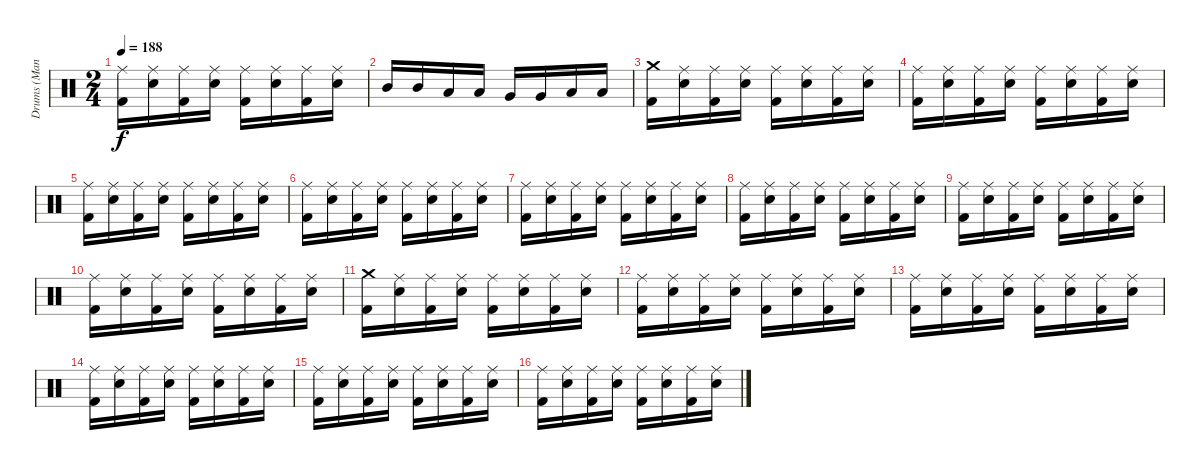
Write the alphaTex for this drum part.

\track ("Drums (Manheim)" "Drums (Man") {instrument percussion}
\staff {score}
\articulation defaults
\ts (2 4)
\tempo 188
\clef neutral
\ks c
("Ride (middle)" "Kick (hit) 2").16{dy f} ("Ride (middle)" "Electric Snare (hit)").16 ("Ride (middle)" "Kick (hit) 2").16 ("Ride (middle)" "Electric Snare (hit)").16 ("Ride (middle)" "Kick (hit) 2").16 ("Ride (middle)" "Electric Snare (hit)").16 ("Ride (middle)" "Kick (hit) 2").16 ("Ride (middle)" "Electric Snare (hit)").16 |
"Mid Tom (hit)".16 "Mid Tom (hit)".16 "Low Tom (hit)".16 "Low Tom (hit)".16 "Very Low Tom (hit)".16 "Very Low Tom (hit)".16 "Low Floor Tom (hit)".16 "Low Floor Tom (hit)".16 |
("Crash medium (hit)" "Kick (hit) 2").16 ("Ride (middle)" "Electric Snare (hit)").16 ("Ride (middle)" "Kick (hit) 2").16 ("Ride (middle)" "Electric Snare (hit)").16 ("Ride (middle)" "Kick (hit) 2").16 ("Ride (middle)" "Electric Snare (hit)").16 ("Ride (middle)" "Kick (hit) 2").16 ("Ride (middle)" "Electric Snare (hit)").16 |
("Ride (middle)" "Kick (hit) 2").16 ("Ride (middle)" "Electric Snare (hit)").16 ("Ride (middle)" "Kick (hit) 2").16 ("Ride (middle)" "Electric Snare (hit)").16 ("Ride (middle)" "Kick (hit) 2").16 ("Ride (middle)" "Electric Snare (hit)").16 ("Ride (middle)" "Kick (hit) 2").16 ("Ride (middle)" "Electric Snare (hit)").16 |
("Ride (middle)" "Kick (hit) 2").16 ("Ride (middle)" "Electric Snare (hit)").16 ("Ride (middle)" "Kick (hit) 2").16 ("Ride (middle)" "Electric Snare (hit)").16 ("Ride (middle)" "Kick (hit) 2").16 ("Ride (middle)" "Electric Snare (hit)").16 ("Ride (middle)" "Kick (hit) 2").16 ("Ride (middle)" "Electric Snare (hit)").16 |
("Ride (middle)" "Kick (hit) 2").16 ("Ride (middle)" "Electric Snare (hit)").16 ("Ride (middle)" "Kick (hit) 2").16 ("Ride (middle)" "Electric Snare (hit)").16 ("Ride (middle)" "Kick (hit) 2").16 ("Ride (middle)" "Electric Snare (hit)").16 ("Ride (middle)" "Kick (hit) 2").16 ("Ride (middle)" "Electric Snare (hit)").16 |
("Ride (middle)" "Kick (hit) 2").16 ("Ride (middle)" "Electric Snare (hit)").16 ("Ride (middle)" "Kick (hit) 2").16 ("Ride (middle)" "Electric Snare (hit)").16 ("Ride (middle)" "Kick (hit) 2").16 ("Ride (middle)" "Electric Snare (hit)").16 ("Ride (middle)" "Kick (hit) 2").16 ("Ride (middle)" "Electric Snare (hit)").16 |
("Ride (middle)" "Kick (hit) 2").16 ("Ride (middle)" "Electric Snare (hit)").16 ("Ride (middle)" "Kick (hit) 2").16 ("Ride (middle)" "Electric Snare (hit)").16 ("Ride (middle)" "Kick (hit) 2").16 ("Ride (middle)" "Electric Snare (hit)").16 ("Ride (middle)" "Kick (hit) 2").16 ("Ride (middle)" "Electric Snare (hit)").16 |
("Ride (middle)" "Kick (hit) 2").16 ("Ride (middle)" "Electric Snare (hit)").16 ("Ride (middle)" "Kick (hit) 2").16 ("Ride (middle)" "Electric Snare (hit)").16 ("Ride (middle)" "Kick (hit) 2").16 ("Ride (middle)" "Electric Snare (hit)").16 ("Ride (middle)" "Kick (hit) 2").16 ("Ride (middle)" "Electric Snare (hit)").16 |
("Ride (middle)" "Kick (hit) 2").16 ("Ride (middle)" "Electric Snare (hit)").16 ("Ride (middle)" "Kick (hit) 2").16 ("Ride (middle)" "Electric Snare (hit)").16 ("Ride (middle)" "Kick (hit) 2").16 ("Ride (middle)" "Electric Snare (hit)").16 ("Ride (middle)" "Kick (hit) 2").16 ("Ride (middle)" "Electric Snare (hit)").16 |
("Crash medium (hit)" "Kick (hit) 2").16 ("Ride (middle)" "Electric Snare (hit)").16 ("Ride (middle)" "Kick (hit) 2").16 ("Ride (middle)" "Electric Snare (hit)").16 ("Ride (middle)" "Kick (hit) 2").16 ("Ride (middle)" "Electric Snare (hit)").16 ("Ride (middle)" "Kick (hit) 2").16 ("Ride (middle)" "Electric Snare (hit)").16 |
("Ride (middle)" "Kick (hit) 2").16 ("Ride (middle)" "Electric Snare (hit)").16 ("Ride (middle)" "Kick (hit) 2").16 ("Ride (middle)" "Electric Snare (hit)").16 ("Ride (middle)" "Kick (hit) 2").16 ("Ride (middle)" "Electric Snare (hit)").16 ("Ride (middle)" "Kick (hit) 2").16 ("Ride (middle)" "Electric Snare (hit)").16 |
("Ride (middle)" "Kick (hit) 2").16 ("Ride (middle)" "Electric Snare (hit)").16 ("Ride (middle)" "Kick (hit) 2").16 ("Ride (middle)" "Electric Snare (hit)").16 ("Ride (middle)" "Kick (hit) 2").16 ("Ride (middle)" "Electric Snare (hit)").16 ("Ride (middle)" "Kick (hit) 2").16 ("Ride (middle)" "Electric Snare (hit)").16 |
("Ride (middle)" "Kick (hit) 2").16 ("Ride (middle)" "Electric Snare (hit)").16 ("Ride (middle)" "Kick (hit) 2").16 ("Ride (middle)" "Electric Snare (hit)").16 ("Ride (middle)" "Kick (hit) 2").16 ("Ride (middle)" "Electric Snare (hit)").16 ("Ride (middle)" "Kick (hit) 2").16 ("Ride (middle)" "Electric Snare (hit)").16 |
("Ride (middle)" "Kick (hit) 2").16 ("Ride (middle)" "Electric Snare (hit)").16 ("Ride (middle)" "Kick (hit) 2").16 ("Ride (middle)" "Electric Snare (hit)").16 ("Ride (middle)" "Kick (hit) 2").16 ("Ride (middle)" "Electric Snare (hit)").16 ("Ride (middle)" "Kick (hit) 2").16 ("Ride (middle)" "Electric Snare (hit)").16 |
("Ride (middle)" "Kick (hit) 2").16 ("Ride (middle)" "Electric Snare (hit)").16 ("Ride (middle)" "Kick (hit) 2").16 ("Ride (middle)" "Electric Snare (hit)").16 ("Ride (middle)" "Kick (hit) 2").16 ("Ride (middle)" "Electric Snare (hit)").16 ("Ride (middle)" "Kick (hit) 2").16 ("Ride (middle)" "Electric Snare (hit)").16
